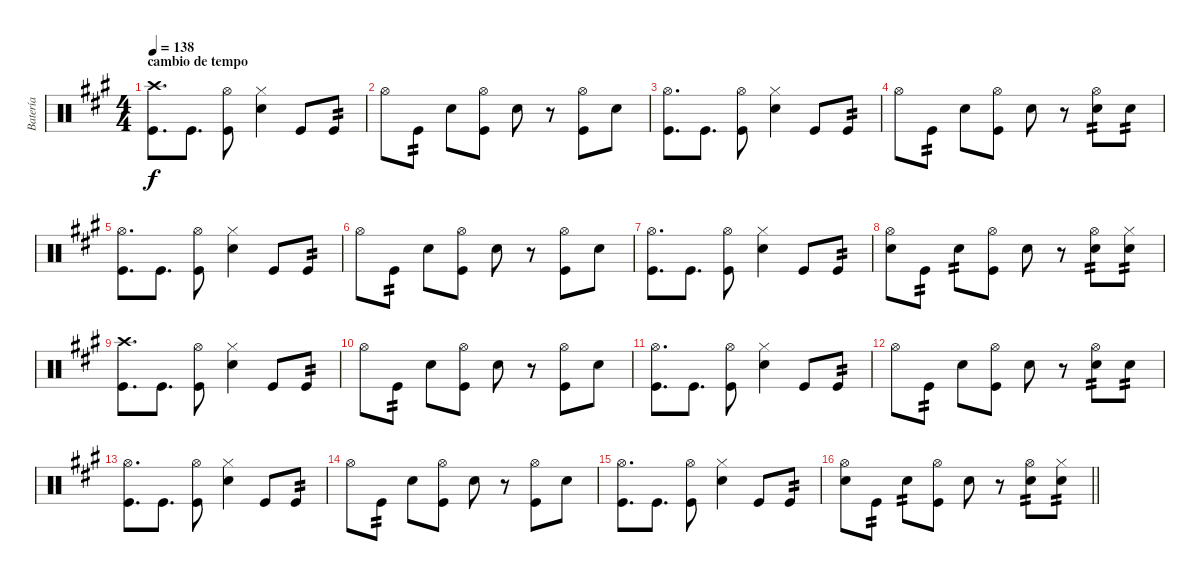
\track ("Batería" "Batería") {instrument percussion}
\staff {score}
\articulation defaults
\ts (4 4)
\section ("" "cambio de tempo")
\tempo 138
\clef neutral
\ks a
("Crash high (hit)" "Kick (hit)").8{d dy f} "Kick (hit)".8{d} ("Hi-Hat (open)" "Kick (hit)").8 ("Hi-Hat (closed)" "Electric Snare (hit)").4 "Kick (hit)".8 "Kick (hit)".8{tp 2} |
"Hi-Hat (open)".8 "Kick (hit)".8{tp 2} "Electric Snare (hit)".8 ("Hi-Hat (open)" "Kick (hit)").8 "Electric Snare (hit)".8 r.8 ("Hi-Hat (open)" "Kick (hit)").8 "Electric Snare (hit)".8 |
("Hi-Hat (open)" "Kick (hit)").8{d} "Kick (hit)".8{d} ("Hi-Hat (open)" "Kick (hit)").8 ("Hi-Hat (closed)" "Electric Snare (hit)").4 "Kick (hit)".8 "Kick (hit)".8{tp 2} |
"Hi-Hat (open)".8 "Kick (hit)".8{tp 2} "Electric Snare (hit)".8 ("Hi-Hat (open)" "Kick (hit)").8 "Electric Snare (hit)".8 r.8 ("Hi-Hat (open)" "Electric Snare (hit)").8{tp 2} "Electric Snare (hit)".8{tp 2} |
("Hi-Hat (open)" "Kick (hit)").8{d} "Kick (hit)".8{d} ("Hi-Hat (open)" "Kick (hit)").8 ("Hi-Hat (closed)" "Electric Snare (hit)").4 "Kick (hit)".8 "Kick (hit)".8{tp 2} |
"Hi-Hat (open)".8 "Kick (hit)".8{tp 2} "Electric Snare (hit)".8 ("Hi-Hat (open)" "Kick (hit)").8 "Electric Snare (hit)".8 r.8 ("Hi-Hat (open)" "Kick (hit)").8 "Electric Snare (hit)".8 |
("Hi-Hat (open)" "Kick (hit)").8{d} "Kick (hit)".8{d} ("Hi-Hat (open)" "Kick (hit)").8 ("Hi-Hat (closed)" "Electric Snare (hit)").4 "Kick (hit)".8 "Kick (hit)".8{tp 2} |
("Hi-Hat (open)" "Electric Snare (hit)").8 "Kick (hit)".8{tp 2} "Electric Snare (hit)".8{tp 2} ("Hi-Hat (open)" "Kick (hit)").8 "Electric Snare (hit)".8 r.8 ("Hi-Hat (open)" "Electric Snare (hit)").8{tp 2} ("Hi-Hat (closed)" "Electric Snare (hit)").8{tp 2} |
("Crash high (hit)" "Kick (hit)").8{d} "Kick (hit)".8{d} ("Hi-Hat (open)" "Kick (hit)").8 ("Hi-Hat (closed)" "Electric Snare (hit)").4 "Kick (hit)".8 "Kick (hit)".8{tp 2} |
"Hi-Hat (open)".8 "Kick (hit)".8{tp 2} "Electric Snare (hit)".8 ("Hi-Hat (open)" "Kick (hit)").8 "Electric Snare (hit)".8 r.8 ("Hi-Hat (open)" "Kick (hit)").8 "Electric Snare (hit)".8 |
("Hi-Hat (open)" "Kick (hit)").8{d} "Kick (hit)".8{d} ("Hi-Hat (open)" "Kick (hit)").8 ("Hi-Hat (closed)" "Electric Snare (hit)").4 "Kick (hit)".8 "Kick (hit)".8{tp 2} |
"Hi-Hat (open)".8 "Kick (hit)".8{tp 2} "Electric Snare (hit)".8 ("Hi-Hat (open)" "Kick (hit)").8 "Electric Snare (hit)".8 r.8 ("Hi-Hat (open)" "Electric Snare (hit)").8{tp 2} "Electric Snare (hit)".8{tp 2} |
("Hi-Hat (open)" "Kick (hit)").8{d} "Kick (hit)".8{d} ("Hi-Hat (open)" "Kick (hit)").8 ("Hi-Hat (closed)" "Electric Snare (hit)").4 "Kick (hit)".8 "Kick (hit)".8{tp 2} |
"Hi-Hat (open)".8 "Kick (hit)".8{tp 2} "Electric Snare (hit)".8 ("Hi-Hat (open)" "Kick (hit)").8 "Electric Snare (hit)".8 r.8 ("Hi-Hat (open)" "Kick (hit)").8 "Electric Snare (hit)".8 |
("Hi-Hat (open)" "Kick (hit)").8{d} "Kick (hit)".8{d} ("Hi-Hat (open)" "Kick (hit)").8 ("Hi-Hat (closed)" "Electric Snare (hit)").4 "Kick (hit)".8 "Kick (hit)".8{tp 2} |
\barLineRight lightlight
("Hi-Hat (open)" "Electric Snare (hit)").8 "Kick (hit)".8{tp 2} "Electric Snare (hit)".8{tp 2} ("Hi-Hat (open)" "Kick (hit)").8 "Electric Snare (hit)".8 r.8 ("Hi-Hat (open)" "Electric Snare (hit)").8{tp 2} ("Hi-Hat (closed)" "Electric Snare (hit)").8{tp 2}
